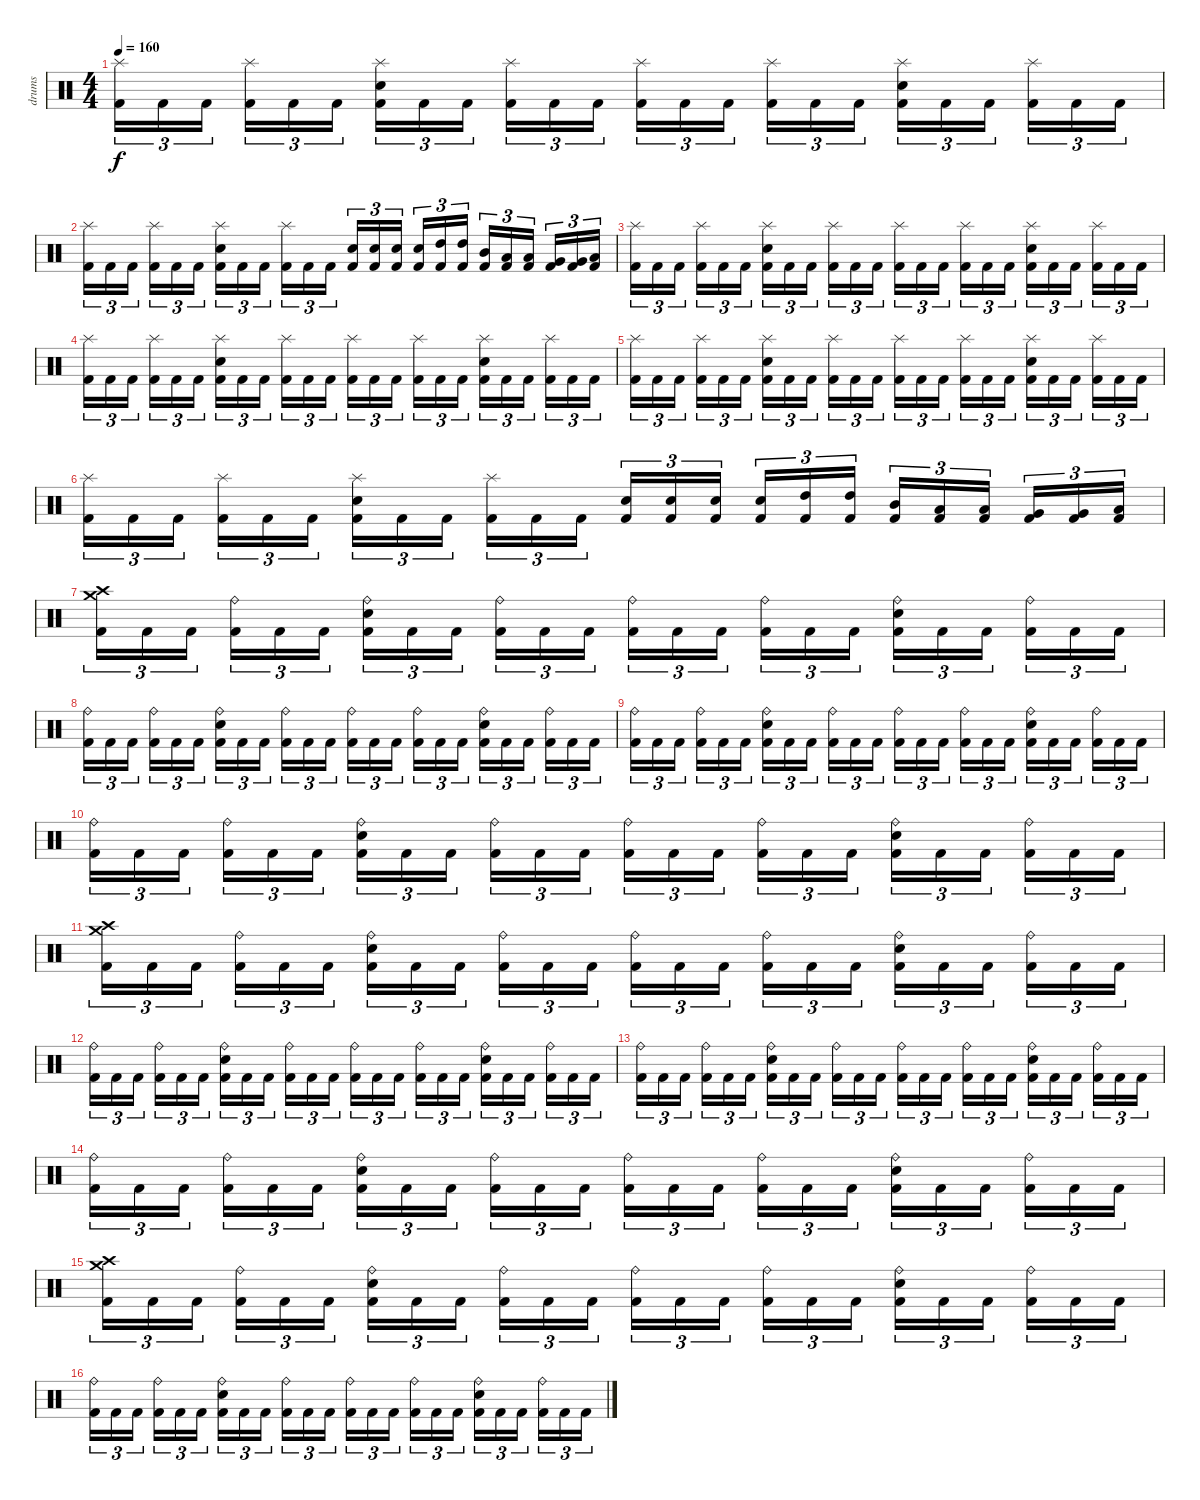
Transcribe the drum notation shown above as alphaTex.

\track ("drums" "drums") {instrument percussion}
\staff {score}
\articulation defaults
\ts (4 4)
\tempo 160
\clef neutral
\ks c
("Splash (hit)" "Kick (hit) 2").16{tu (3 2) dy f} "Kick (hit) 2".16{tu (3 2)} "Kick (hit) 2".16{tu (3 2)} ("Splash (hit)" "Kick (hit) 2").16{tu (3 2)} "Kick (hit) 2".16{tu (3 2)} "Kick (hit) 2".16{tu (3 2)} ("Splash (hit)" "Snare (hit) 2" "Kick (hit) 2").16{tu (3 2)} "Kick (hit) 2".16{tu (3 2)} "Kick (hit) 2".16{tu (3 2)} ("Splash (hit)" "Kick (hit) 2").16{tu (3 2)} "Kick (hit) 2".16{tu (3 2)} "Kick (hit) 2".16{tu (3 2)} ("Splash (hit)" "Kick (hit) 2").16{tu (3 2)} "Kick (hit) 2".16{tu (3 2)} "Kick (hit) 2".16{tu (3 2)} ("Splash (hit)" "Kick (hit) 2").16{tu (3 2)} "Kick (hit) 2".16{tu (3 2)} "Kick (hit) 2".16{tu (3 2)} ("Splash (hit)" "Snare (hit) 2" "Kick (hit) 2").16{tu (3 2)} "Kick (hit) 2".16{tu (3 2)} "Kick (hit) 2".16{tu (3 2)} ("Splash (hit)" "Kick (hit) 2").16{tu (3 2)} "Kick (hit) 2".16{tu (3 2)} "Kick (hit) 2".16{tu (3 2)} |
("Splash (hit)" "Kick (hit) 2").16{tu (3 2)} "Kick (hit) 2".16{tu (3 2)} "Kick (hit) 2".16{tu (3 2)} ("Splash (hit)" "Kick (hit) 2").16{tu (3 2)} "Kick (hit) 2".16{tu (3 2)} "Kick (hit) 2".16{tu (3 2)} ("Splash (hit)" "Snare (hit) 2" "Kick (hit) 2").16{tu (3 2)} "Kick (hit) 2".16{tu (3 2)} "Kick (hit) 2".16{tu (3 2)} ("Splash (hit)" "Kick (hit) 2").16{tu (3 2)} "Kick (hit) 2".16{tu (3 2)} "Kick (hit) 2".16{tu (3 2)} ("Snare (hit) 2" "Kick (hit) 2").16{tu (3 2)} ("Snare (hit) 2" "Kick (hit) 2").16{tu (3 2)} ("Snare (hit) 2" "Kick (hit) 2").16{tu (3 2)} ("Snare (hit) 2" "Kick (hit) 2").16{tu (3 2)} ("High Tom (hit)" "Kick (hit) 2").16{tu (3 2)} ("High Tom (hit)" "Kick (hit) 2").16{tu (3 2)} ("Mid Tom (hit)" "Kick (hit) 2").16{tu (3 2)} ("Low Tom (hit)" "Kick (hit) 2").16{tu (3 2)} ("Low Tom (hit)" "Kick (hit) 2").16{tu (3 2)} ("Very Low Tom (hit)" "Kick (hit) 2").16{tu (3 2)} ("Very Low Tom (hit)" "Kick (hit) 2").16{tu (3 2)} ("Low Floor Tom (hit)" "Kick (hit) 2").16{tu (3 2)} |
("Splash (hit)" "Kick (hit) 2").16{tu (3 2)} "Kick (hit) 2".16{tu (3 2)} "Kick (hit) 2".16{tu (3 2)} ("Splash (hit)" "Kick (hit) 2").16{tu (3 2)} "Kick (hit) 2".16{tu (3 2)} "Kick (hit) 2".16{tu (3 2)} ("Splash (hit)" "Snare (hit) 2" "Kick (hit) 2").16{tu (3 2)} "Kick (hit) 2".16{tu (3 2)} "Kick (hit) 2".16{tu (3 2)} ("Splash (hit)" "Kick (hit) 2").16{tu (3 2)} "Kick (hit) 2".16{tu (3 2)} "Kick (hit) 2".16{tu (3 2)} ("Splash (hit)" "Kick (hit) 2").16{tu (3 2)} "Kick (hit) 2".16{tu (3 2)} "Kick (hit) 2".16{tu (3 2)} ("Splash (hit)" "Kick (hit) 2").16{tu (3 2)} "Kick (hit) 2".16{tu (3 2)} "Kick (hit) 2".16{tu (3 2)} ("Splash (hit)" "Snare (hit) 2" "Kick (hit) 2").16{tu (3 2)} "Kick (hit) 2".16{tu (3 2)} "Kick (hit) 2".16{tu (3 2)} ("Splash (hit)" "Kick (hit) 2").16{tu (3 2)} "Kick (hit) 2".16{tu (3 2)} "Kick (hit) 2".16{tu (3 2)} |
("Splash (hit)" "Kick (hit) 2").16{tu (3 2)} "Kick (hit) 2".16{tu (3 2)} "Kick (hit) 2".16{tu (3 2)} ("Splash (hit)" "Kick (hit) 2").16{tu (3 2)} "Kick (hit) 2".16{tu (3 2)} "Kick (hit) 2".16{tu (3 2)} ("Splash (hit)" "Snare (hit) 2" "Kick (hit) 2").16{tu (3 2)} "Kick (hit) 2".16{tu (3 2)} "Kick (hit) 2".16{tu (3 2)} ("Splash (hit)" "Kick (hit) 2").16{tu (3 2)} "Kick (hit) 2".16{tu (3 2)} "Kick (hit) 2".16{tu (3 2)} ("Splash (hit)" "Kick (hit) 2").16{tu (3 2)} "Kick (hit) 2".16{tu (3 2)} "Kick (hit) 2".16{tu (3 2)} ("Splash (hit)" "Kick (hit) 2").16{tu (3 2)} "Kick (hit) 2".16{tu (3 2)} "Kick (hit) 2".16{tu (3 2)} ("Splash (hit)" "Snare (hit) 2" "Kick (hit) 2").16{tu (3 2)} "Kick (hit) 2".16{tu (3 2)} "Kick (hit) 2".16{tu (3 2)} ("Splash (hit)" "Kick (hit) 2").16{tu (3 2)} "Kick (hit) 2".16{tu (3 2)} "Kick (hit) 2".16{tu (3 2)} |
("Splash (hit)" "Kick (hit) 2").16{tu (3 2)} "Kick (hit) 2".16{tu (3 2)} "Kick (hit) 2".16{tu (3 2)} ("Splash (hit)" "Kick (hit) 2").16{tu (3 2)} "Kick (hit) 2".16{tu (3 2)} "Kick (hit) 2".16{tu (3 2)} ("Splash (hit)" "Snare (hit) 2" "Kick (hit) 2").16{tu (3 2)} "Kick (hit) 2".16{tu (3 2)} "Kick (hit) 2".16{tu (3 2)} ("Splash (hit)" "Kick (hit) 2").16{tu (3 2)} "Kick (hit) 2".16{tu (3 2)} "Kick (hit) 2".16{tu (3 2)} ("Splash (hit)" "Kick (hit) 2").16{tu (3 2)} "Kick (hit) 2".16{tu (3 2)} "Kick (hit) 2".16{tu (3 2)} ("Splash (hit)" "Kick (hit) 2").16{tu (3 2)} "Kick (hit) 2".16{tu (3 2)} "Kick (hit) 2".16{tu (3 2)} ("Splash (hit)" "Snare (hit) 2" "Kick (hit) 2").16{tu (3 2)} "Kick (hit) 2".16{tu (3 2)} "Kick (hit) 2".16{tu (3 2)} ("Splash (hit)" "Kick (hit) 2").16{tu (3 2)} "Kick (hit) 2".16{tu (3 2)} "Kick (hit) 2".16{tu (3 2)} |
("Splash (hit)" "Kick (hit) 2").16{tu (3 2)} "Kick (hit) 2".16{tu (3 2)} "Kick (hit) 2".16{tu (3 2)} ("Splash (hit)" "Kick (hit) 2").16{tu (3 2)} "Kick (hit) 2".16{tu (3 2)} "Kick (hit) 2".16{tu (3 2)} ("Splash (hit)" "Snare (hit) 2" "Kick (hit) 2").16{tu (3 2)} "Kick (hit) 2".16{tu (3 2)} "Kick (hit) 2".16{tu (3 2)} ("Splash (hit)" "Kick (hit) 2").16{tu (3 2)} "Kick (hit) 2".16{tu (3 2)} "Kick (hit) 2".16{tu (3 2)} ("Snare (hit) 2" "Kick (hit) 2").16{tu (3 2)} ("Snare (hit) 2" "Kick (hit) 2").16{tu (3 2)} ("Snare (hit) 2" "Kick (hit) 2").16{tu (3 2)} ("Snare (hit) 2" "Kick (hit) 2").16{tu (3 2)} ("High Tom (hit)" "Kick (hit) 2").16{tu (3 2)} ("High Tom (hit)" "Kick (hit) 2").16{tu (3 2)} ("Mid Tom (hit)" "Kick (hit) 2").16{tu (3 2)} ("Low Tom (hit)" "Kick (hit) 2").16{tu (3 2)} ("Low Tom (hit)" "Kick (hit) 2").16{tu (3 2)} ("Very Low Tom (hit)" "Kick (hit) 2").16{tu (3 2)} ("Very Low Tom (hit)" "Kick (hit) 2").16{tu (3 2)} ("Low Floor Tom (hit)" "Kick (hit) 2").16{tu (3 2)} |
("Crash high (hit)" "Crash medium (hit)" "Kick (hit) 2").16{tu (3 2)} "Kick (hit) 2".16{tu (3 2)} "Kick (hit) 2".16{tu (3 2)} ("Ride (bell)" "Kick (hit) 2").16{tu (3 2)} "Kick (hit) 2".16{tu (3 2)} "Kick (hit) 2".16{tu (3 2)} ("Ride (bell)" "Snare (hit) 2" "Kick (hit) 2").16{tu (3 2)} "Kick (hit) 2".16{tu (3 2)} "Kick (hit) 2".16{tu (3 2)} ("Ride (bell)" "Kick (hit) 2").16{tu (3 2)} "Kick (hit) 2".16{tu (3 2)} "Kick (hit) 2".16{tu (3 2)} ("Ride (bell)" "Kick (hit) 2").16{tu (3 2)} "Kick (hit) 2".16{tu (3 2)} "Kick (hit) 2".16{tu (3 2)} ("Ride (bell)" "Kick (hit) 2").16{tu (3 2)} "Kick (hit) 2".16{tu (3 2)} "Kick (hit) 2".16{tu (3 2)} ("Ride (bell)" "Snare (hit) 2" "Kick (hit) 2").16{tu (3 2)} "Kick (hit) 2".16{tu (3 2)} "Kick (hit) 2".16{tu (3 2)} ("Ride (bell)" "Kick (hit) 2").16{tu (3 2)} "Kick (hit) 2".16{tu (3 2)} "Kick (hit) 2".16{tu (3 2)} |
("Ride (bell)" "Kick (hit) 2").16{tu (3 2)} "Kick (hit) 2".16{tu (3 2)} "Kick (hit) 2".16{tu (3 2)} ("Ride (bell)" "Kick (hit) 2").16{tu (3 2)} "Kick (hit) 2".16{tu (3 2)} "Kick (hit) 2".16{tu (3 2)} ("Ride (bell)" "Snare (hit) 2" "Kick (hit) 2").16{tu (3 2)} "Kick (hit) 2".16{tu (3 2)} "Kick (hit) 2".16{tu (3 2)} ("Ride (bell)" "Kick (hit) 2").16{tu (3 2)} "Kick (hit) 2".16{tu (3 2)} "Kick (hit) 2".16{tu (3 2)} ("Ride (bell)" "Kick (hit) 2").16{tu (3 2)} "Kick (hit) 2".16{tu (3 2)} "Kick (hit) 2".16{tu (3 2)} ("Ride (bell)" "Kick (hit) 2").16{tu (3 2)} "Kick (hit) 2".16{tu (3 2)} "Kick (hit) 2".16{tu (3 2)} ("Ride (bell)" "Snare (hit) 2" "Kick (hit) 2").16{tu (3 2)} "Kick (hit) 2".16{tu (3 2)} "Kick (hit) 2".16{tu (3 2)} ("Ride (bell)" "Kick (hit) 2").16{tu (3 2)} "Kick (hit) 2".16{tu (3 2)} "Kick (hit) 2".16{tu (3 2)} |
("Ride (bell)" "Kick (hit) 2").16{tu (3 2)} "Kick (hit) 2".16{tu (3 2)} "Kick (hit) 2".16{tu (3 2)} ("Ride (bell)" "Kick (hit) 2").16{tu (3 2)} "Kick (hit) 2".16{tu (3 2)} "Kick (hit) 2".16{tu (3 2)} ("Ride (bell)" "Snare (hit) 2" "Kick (hit) 2").16{tu (3 2)} "Kick (hit) 2".16{tu (3 2)} "Kick (hit) 2".16{tu (3 2)} ("Ride (bell)" "Kick (hit) 2").16{tu (3 2)} "Kick (hit) 2".16{tu (3 2)} "Kick (hit) 2".16{tu (3 2)} ("Ride (bell)" "Kick (hit) 2").16{tu (3 2)} "Kick (hit) 2".16{tu (3 2)} "Kick (hit) 2".16{tu (3 2)} ("Ride (bell)" "Kick (hit) 2").16{tu (3 2)} "Kick (hit) 2".16{tu (3 2)} "Kick (hit) 2".16{tu (3 2)} ("Ride (bell)" "Snare (hit) 2" "Kick (hit) 2").16{tu (3 2)} "Kick (hit) 2".16{tu (3 2)} "Kick (hit) 2".16{tu (3 2)} ("Ride (bell)" "Kick (hit) 2").16{tu (3 2)} "Kick (hit) 2".16{tu (3 2)} "Kick (hit) 2".16{tu (3 2)} |
("Ride (bell)" "Kick (hit) 2").16{tu (3 2)} "Kick (hit) 2".16{tu (3 2)} "Kick (hit) 2".16{tu (3 2)} ("Ride (bell)" "Kick (hit) 2").16{tu (3 2)} "Kick (hit) 2".16{tu (3 2)} "Kick (hit) 2".16{tu (3 2)} ("Ride (bell)" "Snare (hit) 2" "Kick (hit) 2").16{tu (3 2)} "Kick (hit) 2".16{tu (3 2)} "Kick (hit) 2".16{tu (3 2)} ("Ride (bell)" "Kick (hit) 2").16{tu (3 2)} "Kick (hit) 2".16{tu (3 2)} "Kick (hit) 2".16{tu (3 2)} ("Ride (bell)" "Kick (hit) 2").16{tu (3 2)} "Kick (hit) 2".16{tu (3 2)} "Kick (hit) 2".16{tu (3 2)} ("Ride (bell)" "Kick (hit) 2").16{tu (3 2)} "Kick (hit) 2".16{tu (3 2)} "Kick (hit) 2".16{tu (3 2)} ("Ride (bell)" "Snare (hit) 2" "Kick (hit) 2").16{tu (3 2)} "Kick (hit) 2".16{tu (3 2)} "Kick (hit) 2".16{tu (3 2)} ("Ride (bell)" "Kick (hit) 2").16{tu (3 2)} "Kick (hit) 2".16{tu (3 2)} "Kick (hit) 2".16{tu (3 2)} |
("Crash high (hit)" "Crash medium (hit)" "Kick (hit) 2").16{tu (3 2)} "Kick (hit) 2".16{tu (3 2)} "Kick (hit) 2".16{tu (3 2)} ("Ride (bell)" "Kick (hit) 2").16{tu (3 2)} "Kick (hit) 2".16{tu (3 2)} "Kick (hit) 2".16{tu (3 2)} ("Ride (bell)" "Snare (hit) 2" "Kick (hit) 2").16{tu (3 2)} "Kick (hit) 2".16{tu (3 2)} "Kick (hit) 2".16{tu (3 2)} ("Ride (bell)" "Kick (hit) 2").16{tu (3 2)} "Kick (hit) 2".16{tu (3 2)} "Kick (hit) 2".16{tu (3 2)} ("Ride (bell)" "Kick (hit) 2").16{tu (3 2)} "Kick (hit) 2".16{tu (3 2)} "Kick (hit) 2".16{tu (3 2)} ("Ride (bell)" "Kick (hit) 2").16{tu (3 2)} "Kick (hit) 2".16{tu (3 2)} "Kick (hit) 2".16{tu (3 2)} ("Ride (bell)" "Snare (hit) 2" "Kick (hit) 2").16{tu (3 2)} "Kick (hit) 2".16{tu (3 2)} "Kick (hit) 2".16{tu (3 2)} ("Ride (bell)" "Kick (hit) 2").16{tu (3 2)} "Kick (hit) 2".16{tu (3 2)} "Kick (hit) 2".16{tu (3 2)} |
("Ride (bell)" "Kick (hit) 2").16{tu (3 2)} "Kick (hit) 2".16{tu (3 2)} "Kick (hit) 2".16{tu (3 2)} ("Ride (bell)" "Kick (hit) 2").16{tu (3 2)} "Kick (hit) 2".16{tu (3 2)} "Kick (hit) 2".16{tu (3 2)} ("Ride (bell)" "Snare (hit) 2" "Kick (hit) 2").16{tu (3 2)} "Kick (hit) 2".16{tu (3 2)} "Kick (hit) 2".16{tu (3 2)} ("Ride (bell)" "Kick (hit) 2").16{tu (3 2)} "Kick (hit) 2".16{tu (3 2)} "Kick (hit) 2".16{tu (3 2)} ("Ride (bell)" "Kick (hit) 2").16{tu (3 2)} "Kick (hit) 2".16{tu (3 2)} "Kick (hit) 2".16{tu (3 2)} ("Ride (bell)" "Kick (hit) 2").16{tu (3 2)} "Kick (hit) 2".16{tu (3 2)} "Kick (hit) 2".16{tu (3 2)} ("Ride (bell)" "Snare (hit) 2" "Kick (hit) 2").16{tu (3 2)} "Kick (hit) 2".16{tu (3 2)} "Kick (hit) 2".16{tu (3 2)} ("Ride (bell)" "Kick (hit) 2").16{tu (3 2)} "Kick (hit) 2".16{tu (3 2)} "Kick (hit) 2".16{tu (3 2)} |
("Ride (bell)" "Kick (hit) 2").16{tu (3 2)} "Kick (hit) 2".16{tu (3 2)} "Kick (hit) 2".16{tu (3 2)} ("Ride (bell)" "Kick (hit) 2").16{tu (3 2)} "Kick (hit) 2".16{tu (3 2)} "Kick (hit) 2".16{tu (3 2)} ("Ride (bell)" "Snare (hit) 2" "Kick (hit) 2").16{tu (3 2)} "Kick (hit) 2".16{tu (3 2)} "Kick (hit) 2".16{tu (3 2)} ("Ride (bell)" "Kick (hit) 2").16{tu (3 2)} "Kick (hit) 2".16{tu (3 2)} "Kick (hit) 2".16{tu (3 2)} ("Ride (bell)" "Kick (hit) 2").16{tu (3 2)} "Kick (hit) 2".16{tu (3 2)} "Kick (hit) 2".16{tu (3 2)} ("Ride (bell)" "Kick (hit) 2").16{tu (3 2)} "Kick (hit) 2".16{tu (3 2)} "Kick (hit) 2".16{tu (3 2)} ("Ride (bell)" "Snare (hit) 2" "Kick (hit) 2").16{tu (3 2)} "Kick (hit) 2".16{tu (3 2)} "Kick (hit) 2".16{tu (3 2)} ("Ride (bell)" "Kick (hit) 2").16{tu (3 2)} "Kick (hit) 2".16{tu (3 2)} "Kick (hit) 2".16{tu (3 2)} |
("Ride (bell)" "Kick (hit) 2").16{tu (3 2)} "Kick (hit) 2".16{tu (3 2)} "Kick (hit) 2".16{tu (3 2)} ("Ride (bell)" "Kick (hit) 2").16{tu (3 2)} "Kick (hit) 2".16{tu (3 2)} "Kick (hit) 2".16{tu (3 2)} ("Ride (bell)" "Snare (hit) 2" "Kick (hit) 2").16{tu (3 2)} "Kick (hit) 2".16{tu (3 2)} "Kick (hit) 2".16{tu (3 2)} ("Ride (bell)" "Kick (hit) 2").16{tu (3 2)} "Kick (hit) 2".16{tu (3 2)} "Kick (hit) 2".16{tu (3 2)} ("Ride (bell)" "Kick (hit) 2").16{tu (3 2)} "Kick (hit) 2".16{tu (3 2)} "Kick (hit) 2".16{tu (3 2)} ("Ride (bell)" "Kick (hit) 2").16{tu (3 2)} "Kick (hit) 2".16{tu (3 2)} "Kick (hit) 2".16{tu (3 2)} ("Ride (bell)" "Snare (hit) 2" "Kick (hit) 2").16{tu (3 2)} "Kick (hit) 2".16{tu (3 2)} "Kick (hit) 2".16{tu (3 2)} ("Ride (bell)" "Kick (hit) 2").16{tu (3 2)} "Kick (hit) 2".16{tu (3 2)} "Kick (hit) 2".16{tu (3 2)} |
("Crash high (hit)" "Crash medium (hit)" "Kick (hit) 2").16{tu (3 2)} "Kick (hit) 2".16{tu (3 2)} "Kick (hit) 2".16{tu (3 2)} ("Ride (bell)" "Kick (hit) 2").16{tu (3 2)} "Kick (hit) 2".16{tu (3 2)} "Kick (hit) 2".16{tu (3 2)} ("Ride (bell)" "Snare (hit) 2" "Kick (hit) 2").16{tu (3 2)} "Kick (hit) 2".16{tu (3 2)} "Kick (hit) 2".16{tu (3 2)} ("Ride (bell)" "Kick (hit) 2").16{tu (3 2)} "Kick (hit) 2".16{tu (3 2)} "Kick (hit) 2".16{tu (3 2)} ("Ride (bell)" "Kick (hit) 2").16{tu (3 2)} "Kick (hit) 2".16{tu (3 2)} "Kick (hit) 2".16{tu (3 2)} ("Ride (bell)" "Kick (hit) 2").16{tu (3 2)} "Kick (hit) 2".16{tu (3 2)} "Kick (hit) 2".16{tu (3 2)} ("Ride (bell)" "Snare (hit) 2" "Kick (hit) 2").16{tu (3 2)} "Kick (hit) 2".16{tu (3 2)} "Kick (hit) 2".16{tu (3 2)} ("Ride (bell)" "Kick (hit) 2").16{tu (3 2)} "Kick (hit) 2".16{tu (3 2)} "Kick (hit) 2".16{tu (3 2)} |
("Ride (bell)" "Kick (hit) 2").16{tu (3 2)} "Kick (hit) 2".16{tu (3 2)} "Kick (hit) 2".16{tu (3 2)} ("Ride (bell)" "Kick (hit) 2").16{tu (3 2)} "Kick (hit) 2".16{tu (3 2)} "Kick (hit) 2".16{tu (3 2)} ("Ride (bell)" "Snare (hit) 2" "Kick (hit) 2").16{tu (3 2)} "Kick (hit) 2".16{tu (3 2)} "Kick (hit) 2".16{tu (3 2)} ("Ride (bell)" "Kick (hit) 2").16{tu (3 2)} "Kick (hit) 2".16{tu (3 2)} "Kick (hit) 2".16{tu (3 2)} ("Ride (bell)" "Kick (hit) 2").16{tu (3 2)} "Kick (hit) 2".16{tu (3 2)} "Kick (hit) 2".16{tu (3 2)} ("Ride (bell)" "Kick (hit) 2").16{tu (3 2)} "Kick (hit) 2".16{tu (3 2)} "Kick (hit) 2".16{tu (3 2)} ("Ride (bell)" "Snare (hit) 2" "Kick (hit) 2").16{tu (3 2)} "Kick (hit) 2".16{tu (3 2)} "Kick (hit) 2".16{tu (3 2)} ("Ride (bell)" "Kick (hit) 2").16{tu (3 2)} "Kick (hit) 2".16{tu (3 2)} "Kick (hit) 2".16{tu (3 2)}
